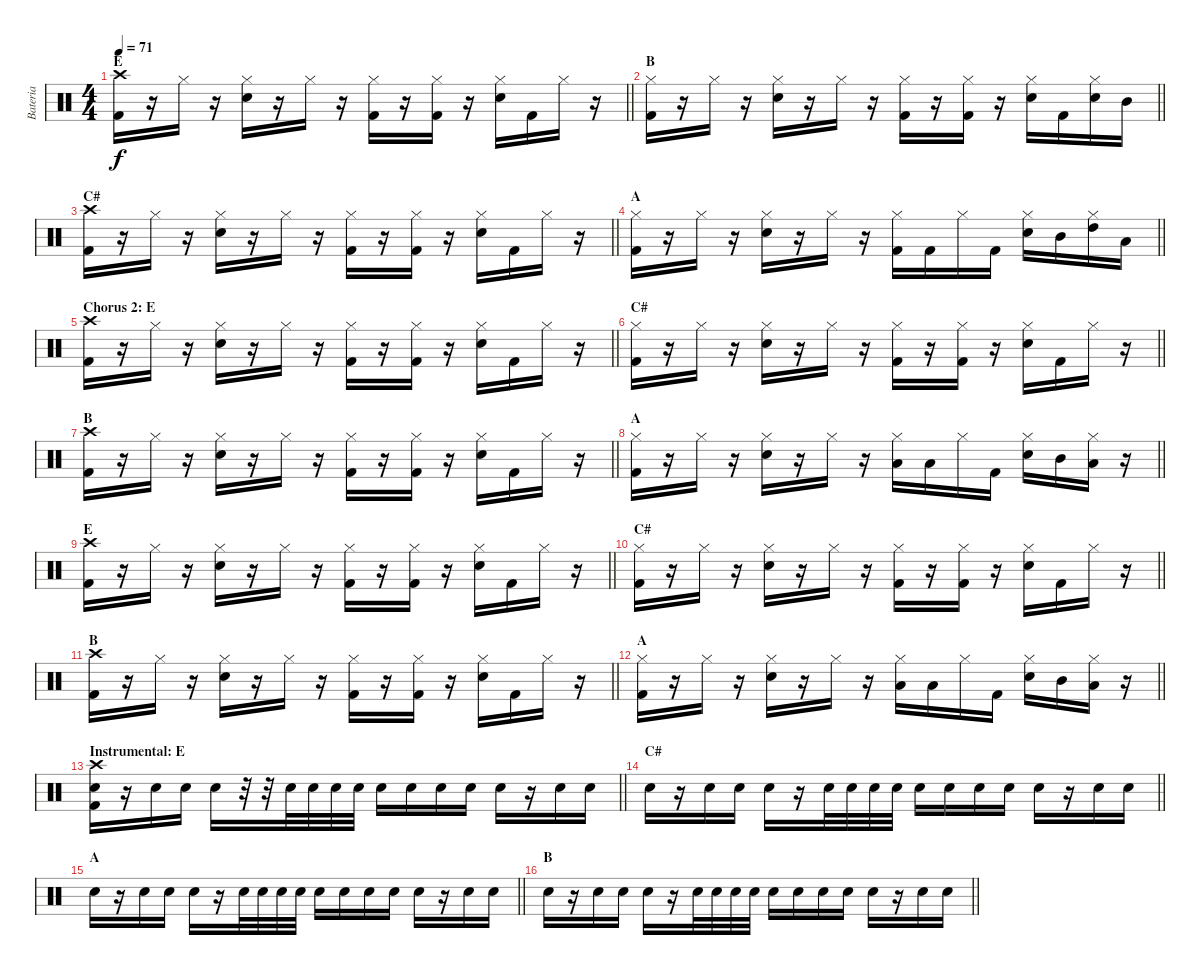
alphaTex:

\track ("Bateria" "Bateria") {instrument percussion}
\staff {score}
\articulation defaults
\ts (4 4)
\section ("" "E")
\tempo 71
\clef neutral
\barLineRight lightlight
\ks c
("Crash high (hit)" "Kick (hit) 2").16{dy f} r.16 "Hi-Hat (closed)".16 r.16 ("Hi-Hat (closed)" "Electric Snare (hit)").16 r.16 "Hi-Hat (closed)".16 r.16 ("Hi-Hat (closed)" "Kick (hit) 2").16 r.16 ("Hi-Hat (closed)" "Kick (hit) 2").16 r.16 ("Hi-Hat (closed)" "Electric Snare (hit)").16 "Kick (hit) 2".16 "Hi-Hat (closed)".16 r.16 |
\section ("" "B")
\barLineRight lightlight
("Hi-Hat (closed)" "Kick (hit) 2").16 r.16 "Hi-Hat (closed)".16 r.16 ("Hi-Hat (closed)" "Electric Snare (hit)").16 r.16 "Hi-Hat (closed)".16 r.16 ("Hi-Hat (closed)" "Kick (hit) 2").16 r.16 ("Hi-Hat (closed)" "Kick (hit) 2").16 r.16 ("Hi-Hat (closed)" "Electric Snare (hit)").16 "Kick (hit) 2".16 ("Hi-Hat (closed)" "Electric Snare (hit)").16 "Mid Tom (hit)".16 |
\section ("" "C#")
\barLineRight lightlight
("Crash high (hit)" "Kick (hit) 2").16 r.16 "Hi-Hat (closed)".16 r.16 ("Hi-Hat (closed)" "Electric Snare (hit)").16 r.16 "Hi-Hat (closed)".16 r.16 ("Hi-Hat (closed)" "Kick (hit) 2").16 r.16 ("Hi-Hat (closed)" "Kick (hit) 2").16 r.16 ("Hi-Hat (closed)" "Electric Snare (hit)").16 "Kick (hit) 2".16 "Hi-Hat (closed)".16 r.16 |
\section ("" "A")
\barLineRight lightlight
("Hi-Hat (closed)" "Kick (hit) 2").16 r.16 "Hi-Hat (closed)".16 r.16 ("Hi-Hat (closed)" "Electric Snare (hit)").16 r.16 "Hi-Hat (closed)".16 r.16 ("Hi-Hat (closed)" "Kick (hit) 2").16 "Kick (hit) 2".16 "Hi-Hat (closed)".16 "Kick (hit) 2".16 ("Hi-Hat (closed)" "Electric Snare (hit)").16 "Mid Tom (hit)".16 ("Hi-Hat (closed)" "High Tom (hit)").16 "Low Floor Tom (hit)".16 |
\section ("" "Chorus 2: E")
\barLineRight lightlight
("Crash high (hit)" "Kick (hit) 2").16 r.16 "Hi-Hat (closed)".16 r.16 ("Hi-Hat (closed)" "Electric Snare (hit)").16 r.16 "Hi-Hat (closed)".16 r.16 ("Hi-Hat (closed)" "Kick (hit) 2").16 r.16 ("Hi-Hat (closed)" "Kick (hit) 2").16 r.16 ("Hi-Hat (closed)" "Electric Snare (hit)").16 "Kick (hit) 2".16 "Hi-Hat (closed)".16 r.16 |
\section ("" "C#")
\barLineRight lightlight
("Hi-Hat (closed)" "Kick (hit) 2").16 r.16 "Hi-Hat (closed)".16 r.16 ("Hi-Hat (closed)" "Electric Snare (hit)").16 r.16 "Hi-Hat (closed)".16 r.16 ("Hi-Hat (closed)" "Kick (hit) 2").16 r.16 ("Hi-Hat (closed)" "Kick (hit) 2").16 r.16 ("Hi-Hat (closed)" "Electric Snare (hit)").16 "Kick (hit) 2".16 "Hi-Hat (closed)".16 r.16 |
\section ("" "B")
\barLineRight lightlight
("Crash high (hit)" "Kick (hit) 2").16 r.16 "Hi-Hat (closed)".16 r.16 ("Hi-Hat (closed)" "Electric Snare (hit)").16 r.16 "Hi-Hat (closed)".16 r.16 ("Hi-Hat (closed)" "Kick (hit) 2").16 r.16 ("Hi-Hat (closed)" "Kick (hit) 2").16 r.16 ("Hi-Hat (closed)" "Electric Snare (hit)").16 "Kick (hit) 2".16 "Hi-Hat (closed)".16 r.16 |
\section ("" "A")
\barLineRight lightlight
("Hi-Hat (closed)" "Kick (hit) 2").16 r.16 "Hi-Hat (closed)".16 r.16 ("Hi-Hat (closed)" "Electric Snare (hit)").16 r.16 "Hi-Hat (closed)".16 r.16 ("Hi-Hat (closed)" "Low Floor Tom (hit)").16 "Low Floor Tom (hit)".16 "Hi-Hat (closed)".16 "Kick (hit) 2".16 ("Hi-Hat (closed)" "Electric Snare (hit)").16 "Mid Tom (hit)".16 ("Hi-Hat (closed)" "Low Floor Tom (hit)").16 r.16 |
\section ("" "E")
\barLineRight lightlight
("Crash high (hit)" "Kick (hit) 2").16 r.16 "Hi-Hat (closed)".16 r.16 ("Hi-Hat (closed)" "Electric Snare (hit)").16 r.16 "Hi-Hat (closed)".16 r.16 ("Hi-Hat (closed)" "Kick (hit) 2").16 r.16 ("Hi-Hat (closed)" "Kick (hit) 2").16 r.16 ("Hi-Hat (closed)" "Electric Snare (hit)").16 "Kick (hit) 2".16 "Hi-Hat (closed)".16 r.16 |
\section ("" "C#")
\barLineRight lightlight
("Hi-Hat (closed)" "Kick (hit) 2").16 r.16 "Hi-Hat (closed)".16 r.16 ("Hi-Hat (closed)" "Electric Snare (hit)").16 r.16 "Hi-Hat (closed)".16 r.16 ("Hi-Hat (closed)" "Kick (hit) 2").16 r.16 ("Hi-Hat (closed)" "Kick (hit) 2").16 r.16 ("Hi-Hat (closed)" "Electric Snare (hit)").16 "Kick (hit) 2".16 "Hi-Hat (closed)".16 r.16 |
\section ("" "B")
\barLineRight lightlight
("Crash high (hit)" "Kick (hit) 2").16 r.16 "Hi-Hat (closed)".16 r.16 ("Hi-Hat (closed)" "Electric Snare (hit)").16 r.16 "Hi-Hat (closed)".16 r.16 ("Hi-Hat (closed)" "Kick (hit) 2").16 r.16 ("Hi-Hat (closed)" "Kick (hit) 2").16 r.16 ("Hi-Hat (closed)" "Electric Snare (hit)").16 "Kick (hit) 2".16 "Hi-Hat (closed)".16 r.16 |
\section ("" "A")
\barLineRight lightlight
("Hi-Hat (closed)" "Kick (hit) 2").16 r.16 "Hi-Hat (closed)".16 r.16 ("Hi-Hat (closed)" "Electric Snare (hit)").16 r.16 "Hi-Hat (closed)".16 r.16 ("Hi-Hat (closed)" "Low Floor Tom (hit)").16 "Low Floor Tom (hit)".16 "Hi-Hat (closed)".16 "Kick (hit) 2".16 ("Hi-Hat (closed)" "Electric Snare (hit)").16 "Mid Tom (hit)".16 ("Hi-Hat (closed)" "Low Floor Tom (hit)").16 r.16 |
\section ("" "Instrumental: E")
\barLineRight lightlight
("Crash high (hit)" "Electric Snare (hit)" "Kick (hit) 2").16 r.16 "Electric Snare (hit)".16 "Electric Snare (hit)".16 "Electric Snare (hit)".16 r.32 r.32 "Electric Snare (hit)".32 "Electric Snare (hit)".32 "Electric Snare (hit)".32 "Electric Snare (hit)".32 "Electric Snare (hit)".16 "Electric Snare (hit)".16 "Electric Snare (hit)".16 "Electric Snare (hit)".16 "Electric Snare (hit)".16 r.16 "Electric Snare (hit)".16 "Electric Snare (hit)".16 |
\section ("" "C#")
\barLineRight lightlight "Electric Snare (hit)".16
r.16 "Electric Snare (hit)".16 "Electric Snare (hit)".16 "Electric Snare (hit)".16 r.16 "Electric Snare (hit)".32 "Electric Snare (hit)".32 "Electric Snare (hit)".32 "Electric Snare (hit)".32 "Electric Snare (hit)".16 "Electric Snare (hit)".16 "Electric Snare (hit)".16 "Electric Snare (hit)".16 "Electric Snare (hit)".16 r.16 "Electric Snare (hit)".16 "Electric Snare (hit)".16 |
\section ("" "A")
\barLineRight lightlight "Electric Snare (hit)".16
r.16 "Electric Snare (hit)".16 "Electric Snare (hit)".16 "Electric Snare (hit)".16 r.16 "Electric Snare (hit)".32 "Electric Snare (hit)".32 "Electric Snare (hit)".32 "Electric Snare (hit)".32 "Electric Snare (hit)".16 "Electric Snare (hit)".16 "Electric Snare (hit)".16 "Electric Snare (hit)".16 "Electric Snare (hit)".16 r.16 "Electric Snare (hit)".16 "Electric Snare (hit)".16 |
\section ("" "B")
\barLineRight lightlight "Electric Snare (hit)".16
r.16 "Electric Snare (hit)".16 "Electric Snare (hit)".16 "Electric Snare (hit)".16 r.16 "Electric Snare (hit)".32 "Electric Snare (hit)".32 "Electric Snare (hit)".32 "Electric Snare (hit)".32 "Electric Snare (hit)".16 "Electric Snare (hit)".16 "Electric Snare (hit)".16 "Electric Snare (hit)".16 "Electric Snare (hit)".16 r.16 "Electric Snare (hit)".16 "Electric Snare (hit)".16
